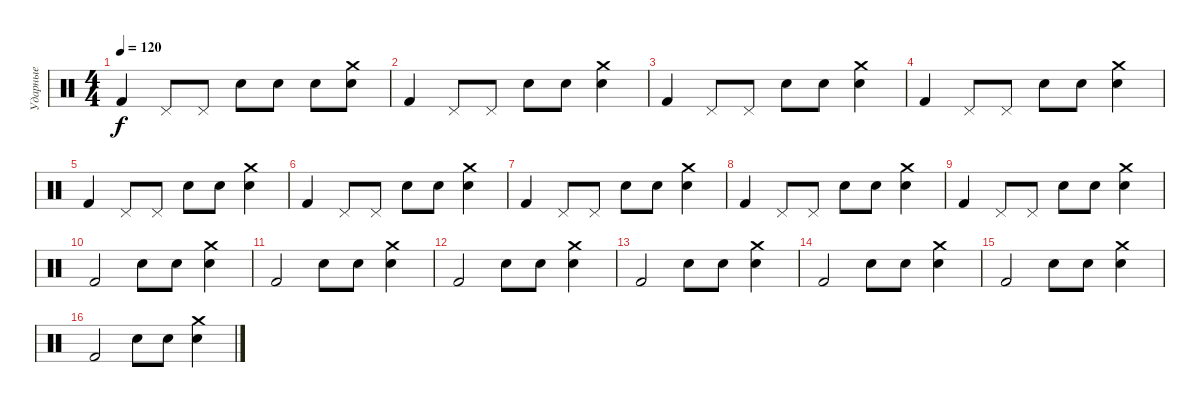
\track ("Ударные" "Ударные") {instrument percussion}
\staff {score}
\articulation defaults
\ts (4 4)
\tempo 120
\clef neutral
\ks c "Kick (hit) 2".4{dy f} "Pedal Hi-Hat (hit)".8 "Pedal Hi-Hat (hit)".8 "Snare (hit) 2".8 "Snare (hit) 2".8 "Snare (hit) 2".8
("Crash medium (hit)" "Snare (hit) 2").8 |
"Kick (hit) 2".4 "Pedal Hi-Hat (hit)".8 "Pedal Hi-Hat (hit)".8 "Snare (hit) 2".8 "Snare (hit) 2".8 ("Crash medium (hit)" "Snare (hit) 2").4 |
"Kick (hit) 2".4 "Pedal Hi-Hat (hit)".8 "Pedal Hi-Hat (hit)".8 "Snare (hit) 2".8 "Snare (hit) 2".8 ("Crash medium (hit)" "Snare (hit) 2").4 |
"Kick (hit) 2".4 "Pedal Hi-Hat (hit)".8 "Pedal Hi-Hat (hit)".8 "Snare (hit) 2".8 "Snare (hit) 2".8 ("Crash medium (hit)" "Snare (hit) 2").4 |
"Kick (hit) 2".4 "Pedal Hi-Hat (hit)".8 "Pedal Hi-Hat (hit)".8 "Snare (hit) 2".8 "Snare (hit) 2".8 ("Crash medium (hit)" "Snare (hit) 2").4 |
"Kick (hit) 2".4 "Pedal Hi-Hat (hit)".8 "Pedal Hi-Hat (hit)".8 "Snare (hit) 2".8 "Snare (hit) 2".8 ("Crash medium (hit)" "Snare (hit) 2").4 |
"Kick (hit) 2".4 "Pedal Hi-Hat (hit)".8 "Pedal Hi-Hat (hit)".8 "Snare (hit) 2".8 "Snare (hit) 2".8 ("Crash medium (hit)" "Snare (hit) 2").4 |
"Kick (hit) 2".4 "Pedal Hi-Hat (hit)".8 "Pedal Hi-Hat (hit)".8 "Snare (hit) 2".8 "Snare (hit) 2".8 ("Crash medium (hit)" "Snare (hit) 2").4 |
"Kick (hit) 2".4 "Pedal Hi-Hat (hit)".8 "Pedal Hi-Hat (hit)".8 "Snare (hit) 2".8 "Snare (hit) 2".8 ("Crash medium (hit)" "Snare (hit) 2").4 |
"Kick (hit) 2".2 "Snare (hit) 2".8 "Snare (hit) 2".8 ("Crash medium (hit)" "Snare (hit) 2").4 |
"Kick (hit) 2".2 "Snare (hit) 2".8 "Snare (hit) 2".8 ("Crash medium (hit)" "Snare (hit) 2").4 |
"Kick (hit) 2".2 "Snare (hit) 2".8 "Snare (hit) 2".8 ("Crash medium (hit)" "Snare (hit) 2").4 |
"Kick (hit) 2".2 "Snare (hit) 2".8 "Snare (hit) 2".8 ("Crash medium (hit)" "Snare (hit) 2").4 |
"Kick (hit) 2".2 "Snare (hit) 2".8 "Snare (hit) 2".8 ("Crash medium (hit)" "Snare (hit) 2").4 |
"Kick (hit) 2".2 "Snare (hit) 2".8 "Snare (hit) 2".8 ("Crash medium (hit)" "Snare (hit) 2").4 |
"Kick (hit) 2".2 "Snare (hit) 2".8 "Snare (hit) 2".8 ("Crash medium (hit)" "Snare (hit) 2").4
